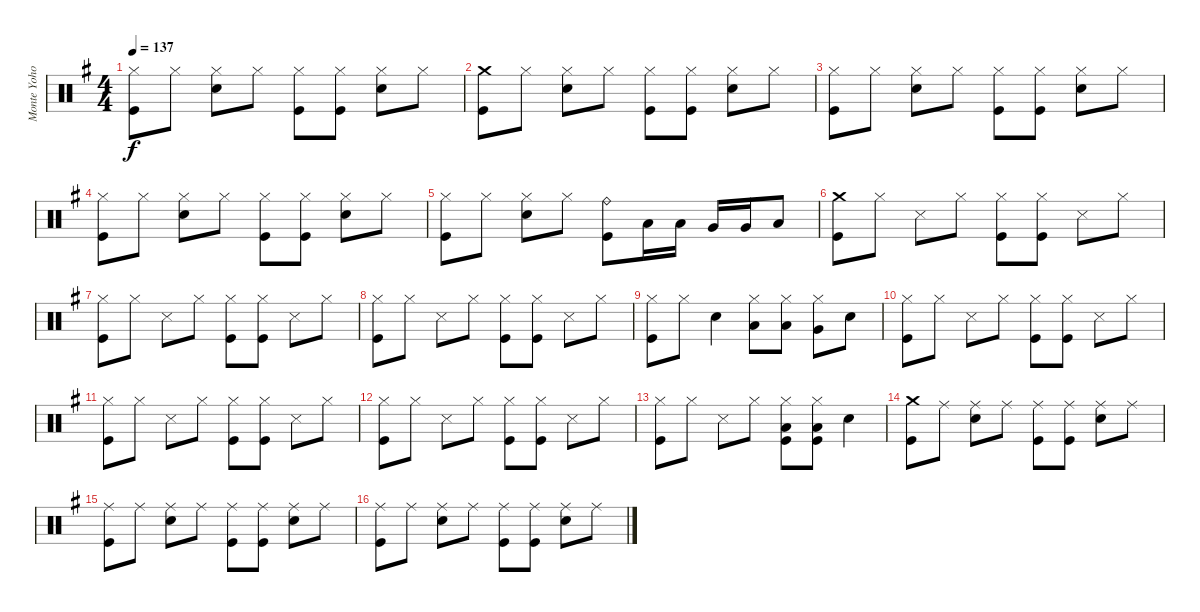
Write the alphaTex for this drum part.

\track ("Monte Yoho Drums" "Monte Yoho") {instrument percussion}
\staff {score}
\articulation defaults
\ts (4 4)
\tempo 137
\clef neutral
\ks g
("Hi-Hat (closed)" "Kick (hit)").8{dy f} "Hi-Hat (closed)".8 ("Hi-Hat (closed)" "Snare (hit) 2").8 "Hi-Hat (closed)".8 ("Hi-Hat (closed)" "Kick (hit)").8 ("Hi-Hat (closed)" "Kick (hit)").8 ("Hi-Hat (closed)" "Snare (hit) 2").8 "Hi-Hat (closed)".8 |
("Crash medium (hit)" "Kick (hit)").8 "Hi-Hat (closed)".8 ("Hi-Hat (closed)" "Snare (hit) 2").8 "Hi-Hat (closed)".8 ("Hi-Hat (closed)" "Kick (hit)").8 ("Hi-Hat (closed)" "Kick (hit)").8 ("Hi-Hat (closed)" "Snare (hit) 2").8 "Hi-Hat (closed)".8 |
("Hi-Hat (closed)" "Kick (hit)").8 "Hi-Hat (closed)".8 ("Hi-Hat (closed)" "Snare (hit) 2").8 "Hi-Hat (closed)".8 ("Hi-Hat (closed)" "Kick (hit)").8 ("Hi-Hat (closed)" "Kick (hit)").8 ("Hi-Hat (closed)" "Snare (hit) 2").8 "Hi-Hat (closed)".8 |
("Hi-Hat (closed)" "Kick (hit)").8 "Hi-Hat (closed)".8 ("Hi-Hat (closed)" "Snare (hit) 2").8 "Hi-Hat (closed)".8 ("Hi-Hat (closed)" "Kick (hit)").8 ("Hi-Hat (closed)" "Kick (hit)").8 ("Hi-Hat (closed)" "Snare (hit) 2").8 "Hi-Hat (closed)".8 |
("Hi-Hat (closed)" "Kick (hit)").8 "Hi-Hat (closed)".8 ("Hi-Hat (closed)" "Snare (hit) 2").8 "Hi-Hat (closed)".8 ("Ride (bell)" "Kick (hit)").8 "Low Tom (hit)".16 "Low Tom (hit)".16 "Very Low Tom (hit)".16 "Very Low Tom (hit)".16 "Low Floor Tom (hit)".8 |
("Crash medium (hit)" "Kick (hit)").8 "Hi-Hat (closed)".8 "Snare (side stick) 3".8 "Hi-Hat (closed)".8 ("Hi-Hat (closed)" "Kick (hit)").8 ("Hi-Hat (closed)" "Kick (hit)").8 "Snare (side stick) 3".8 "Hi-Hat (closed)".8 |
("Hi-Hat (closed)" "Kick (hit)").8 "Hi-Hat (closed)".8 "Snare (side stick) 3".8 "Hi-Hat (closed)".8 ("Hi-Hat (closed)" "Kick (hit)").8 ("Hi-Hat (closed)" "Kick (hit)").8 "Snare (side stick) 3".8 "Hi-Hat (closed)".8 |
("Hi-Hat (closed)" "Kick (hit)").8 "Hi-Hat (closed)".8 "Snare (side stick) 3".8 "Hi-Hat (closed)".8 ("Hi-Hat (closed)" "Kick (hit)").8 ("Hi-Hat (closed)" "Kick (hit)").8 "Snare (side stick) 3".8 "Hi-Hat (closed)".8 |
("Hi-Hat (closed)" "Kick (hit)").8 "Hi-Hat (closed)".8 "Snare (hit) 2".4 ("Hi-Hat (closed)" "Low Tom (hit)").8 ("Hi-Hat (closed)" "Low Tom (hit)").8 ("Hi-Hat (closed)" "Very Low Tom (hit)").8 "Snare (hit) 2".8 |
("Hi-Hat (closed)" "Kick (hit)").8 "Hi-Hat (closed)".8 "Snare (side stick) 3".8 "Hi-Hat (closed)".8 ("Hi-Hat (closed)" "Kick (hit)").8 ("Hi-Hat (closed)" "Kick (hit)").8 "Snare (side stick) 3".8 "Hi-Hat (closed)".8 |
("Hi-Hat (closed)" "Kick (hit)").8 "Hi-Hat (closed)".8 "Snare (side stick) 3".8 "Hi-Hat (closed)".8 ("Hi-Hat (closed)" "Kick (hit)").8 ("Hi-Hat (closed)" "Kick (hit)").8 "Snare (side stick) 3".8 "Hi-Hat (closed)".8 |
("Hi-Hat (closed)" "Kick (hit)").8 "Hi-Hat (closed)".8 "Snare (side stick) 3".8 "Hi-Hat (closed)".8 ("Hi-Hat (closed)" "Kick (hit)").8 ("Hi-Hat (closed)" "Kick (hit)").8 "Snare (side stick) 3".8 "Hi-Hat (closed)".8 |
("Hi-Hat (closed)" "Kick (hit)").8 "Hi-Hat (closed)".8 "Snare (side stick) 3".8 "Hi-Hat (closed)".8 ("Hi-Hat (closed)" "Low Tom (hit)" "Kick (hit)").8 ("Hi-Hat (closed)" "Low Tom (hit)" "Kick (hit)").8 "Snare (hit) 2".4 |
("Crash medium (hit)" "Kick (hit)").8 "Ride (middle)".8 ("Ride (middle)" "Snare (hit) 2").8 "Ride (middle)".8 ("Ride (middle)" "Kick (hit)").8 ("Ride (middle)" "Kick (hit)").8 ("Ride (middle)" "Snare (hit) 2").8 "Ride (middle)".8 |
("Ride (middle)" "Kick (hit)").8 "Ride (middle)".8 ("Ride (middle)" "Snare (hit) 2").8 "Ride (middle)".8 ("Ride (middle)" "Kick (hit)").8 ("Ride (middle)" "Kick (hit)").8 ("Ride (middle)" "Snare (hit) 2").8 "Ride (middle)".8 |
("Ride (middle)" "Kick (hit)").8 "Ride (middle)".8 ("Ride (middle)" "Snare (hit) 2").8 "Ride (middle)".8 ("Ride (middle)" "Kick (hit)").8 ("Ride (middle)" "Kick (hit)").8 ("Ride (middle)" "Snare (hit) 2").8 "Ride (middle)".8
